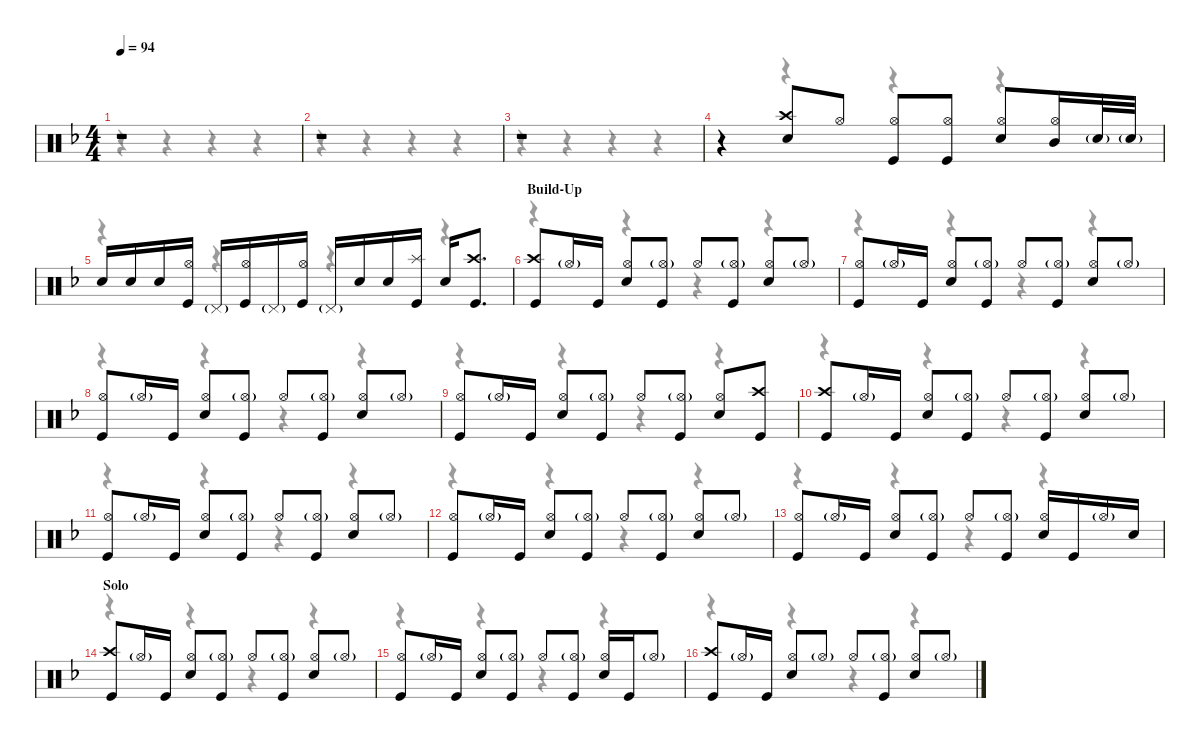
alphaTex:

\defaultSystemsLayout 4
\hideDynamics
\bracketExtendMode nobrackets
\singleTrackTrackNamePolicy hidden
\multiTrackTrackNamePolicy hidden
\otherSystemsTrackNameOrientation horizontal
\track ("M. Lopez" "drm.") {instrument percussion}
\staff {score}
\articulation defaults
\voice
\ts (4 4)
\tempo 94
\clef neutral
\ks dminor
r.1{dy f beam Up} |
r.1{beam Up} |
r.1{beam Up} |
r.4{beam Up} ("Crash high (hit)"{acc forcenatural} "Snare (hit) 2"{acc forcenatural}).8{beam Up} "Hi-Hat (open)"{acc forcenatural}.8{beam Up} ("Hi-Hat (open)"{acc forcenatural} "Kick (hit)"{acc forcenatural}).8{beam Up} ("Hi-Hat (open)"{acc forcenatural} "Kick (hit)"{acc forcenatural}).8{beam Up} ("Hi-Hat (open)"{acc forcenatural} "Snare (hit) 2"{acc forcenatural}).8{beam Up} ("Hi-Hat (open)"{acc forcenatural} "Mid Tom (hit)"{acc forcenatural}).16{beam Up} "Snare (hit) 2"{g acc forcenatural}.32{beam Up} "Snare (hit) 2"{g acc forcenatural}.32{beam Up} |
"Snare (hit) 2"{acc forcenatural}.16{beam Up} "Snare (hit) 2"{acc forcenatural}.16{beam Up} "Snare (hit) 2"{acc forcenatural}.16{beam Up} ("Hi-Hat (open)"{acc forcenatural} "Kick (hit)"{acc forcenatural}).16{beam Up} "Pedal Hi-Hat (hit)"{g acc forcenatural}.16{dy mf beam Up} ("Hi-Hat (open)"{acc forcenatural} "Kick (hit)"{acc forcenatural}).16{dy f beam Up} "Pedal Hi-Hat (hit)"{g acc forcenatural}.16{dy mf beam Up} ("Hi-Hat (open)"{acc forcenatural} "Kick (hit)"{acc forcenatural}).16{dy f beam Up} "Pedal Hi-Hat (hit)"{g acc forcenatural}.16{dy mf beam Up} "Snare (hit) 2"{acc forcenatural}.16{dy f beam Up} "Snare (hit) 2"{acc forcenatural}.16{beam Up} ("Splash (hit)"{acc forcenatural} "Kick (hit)"{acc forcenatural}).16{beam Up} "Snare (hit) 2"{acc forcenatural}.16{beam Up} ("Crash high (hit)"{acc forcenatural} "Kick (hit)"{acc forcenatural}).8{d beam Up} |
\section ("" "Build-Up")
("Crash high (hit)"{acc forcenatural} "Kick (hit)"{acc forcenatural}).8{beam Up} "Hi-Hat (open)"{g acc forcenatural}.16{dy ff beam Up} "Kick (hit)"{acc forcenatural}.16{dy f beam Up} ("Hi-Hat (open)"{acc forcenatural} "Snare (hit) 2"{acc forcenatural}).8{beam Up} ("Hi-Hat (open)"{g acc forcenatural} "Kick (hit)"{acc forcenatural}).8{beam Up} "Hi-Hat (open)"{acc forcenatural}.8{beam Up} ("Hi-Hat (open)"{g acc forcenatural} "Kick (hit)"{acc forcenatural}).8{beam Up} ("Hi-Hat (open)"{acc forcenatural} "Snare (hit) 2"{acc forcenatural}).8{beam Up} "Hi-Hat (open)"{g acc forcenatural}.8{dy ff beam Up} |
("Hi-Hat (open)"{acc forcenatural} "Kick (hit)"{acc forcenatural}).8{dy f beam Up} "Hi-Hat (open)"{g acc forcenatural}.16{dy ff beam Up} "Kick (hit)"{acc forcenatural}.16{dy f beam Up} ("Hi-Hat (open)"{acc forcenatural} "Snare (hit) 2"{acc forcenatural}).8{beam Up} ("Hi-Hat (open)"{g acc forcenatural} "Kick (hit)"{acc forcenatural}).8{beam Up} "Hi-Hat (open)"{acc forcenatural}.8{beam Up} ("Hi-Hat (open)"{g acc forcenatural} "Kick (hit)"{acc forcenatural}).8{beam Up} ("Hi-Hat (open)"{acc forcenatural} "Snare (hit) 2"{acc forcenatural}).8{beam Up} "Hi-Hat (open)"{g acc forcenatural}.8{dy ff beam Up} |
("Hi-Hat (open)"{acc forcenatural} "Kick (hit)"{acc forcenatural}).8{dy f beam Up} "Hi-Hat (open)"{g acc forcenatural}.16{dy ff beam Up} "Kick (hit)"{acc forcenatural}.16{dy f beam Up} ("Hi-Hat (open)"{acc forcenatural} "Snare (hit) 2"{acc forcenatural}).8{beam Up} ("Hi-Hat (open)"{g acc forcenatural} "Kick (hit)"{acc forcenatural}).8{beam Up} "Hi-Hat (open)"{acc forcenatural}.8{beam Up} ("Hi-Hat (open)"{g acc forcenatural} "Kick (hit)"{acc forcenatural}).8{beam Up} ("Hi-Hat (open)"{acc forcenatural} "Snare (hit) 2"{acc forcenatural}).8{beam Up} "Hi-Hat (open)"{g acc forcenatural}.8{dy ff beam Up} |
("Hi-Hat (open)"{acc forcenatural} "Kick (hit)"{acc forcenatural}).8{dy f beam Up} "Hi-Hat (open)"{g acc forcenatural}.16{dy ff beam Up} "Kick (hit)"{acc forcenatural}.16{dy f beam Up} ("Hi-Hat (open)"{acc forcenatural} "Snare (hit) 2"{acc forcenatural}).8{beam Up} ("Hi-Hat (open)"{g acc forcenatural} "Kick (hit)"{acc forcenatural}).8{beam Up} "Hi-Hat (open)"{acc forcenatural}.8{beam Up} ("Hi-Hat (open)"{g acc forcenatural} "Kick (hit)"{acc forcenatural}).8{beam Up} ("Hi-Hat (open)"{acc forcenatural} "Snare (hit) 2"{acc forcenatural}).8{beam Up} ("Crash high (hit)"{acc forcenatural} "Kick (hit)"{acc forcenatural}).8{beam Up} |
("Crash high (hit)"{acc forcenatural} "Kick (hit)"{acc forcenatural}).8{beam Up} "Hi-Hat (open)"{g acc forcenatural}.16{dy ff beam Up} "Kick (hit)"{acc forcenatural}.16{dy f beam Up} ("Hi-Hat (open)"{acc forcenatural} "Snare (hit) 2"{acc forcenatural}).8{beam Up} ("Hi-Hat (open)"{g acc forcenatural} "Kick (hit)"{acc forcenatural}).8{beam Up} "Hi-Hat (open)"{acc forcenatural}.8{beam Up} ("Hi-Hat (open)"{g acc forcenatural} "Kick (hit)"{acc forcenatural}).8{beam Up} ("Hi-Hat (open)"{acc forcenatural} "Snare (hit) 2"{acc forcenatural}).8{beam Up} "Hi-Hat (open)"{g acc forcenatural}.8{dy ff beam Up} |
("Hi-Hat (open)"{acc forcenatural} "Kick (hit)"{acc forcenatural}).8{dy f beam Up} "Hi-Hat (open)"{g acc forcenatural}.16{dy ff beam Up} "Kick (hit)"{acc forcenatural}.16{dy f beam Up} ("Hi-Hat (open)"{acc forcenatural} "Snare (hit) 2"{acc forcenatural}).8{beam Up} ("Hi-Hat (open)"{g acc forcenatural} "Kick (hit)"{acc forcenatural}).8{beam Up} "Hi-Hat (open)"{acc forcenatural}.8{beam Up} ("Hi-Hat (open)"{g acc forcenatural} "Kick (hit)"{acc forcenatural}).8{beam Up} ("Hi-Hat (open)"{acc forcenatural} "Snare (hit) 2"{acc forcenatural}).8{beam Up} "Hi-Hat (open)"{g acc forcenatural}.8{dy ff beam Up} |
("Hi-Hat (open)"{acc forcenatural} "Kick (hit)"{acc forcenatural}).8{dy f beam Up} "Hi-Hat (open)"{g acc forcenatural}.16{dy ff beam Up} "Kick (hit)"{acc forcenatural}.16{dy f beam Up} ("Hi-Hat (open)"{acc forcenatural} "Snare (hit) 2"{acc forcenatural}).8{beam Up} ("Hi-Hat (open)"{g acc forcenatural} "Kick (hit)"{acc forcenatural}).8{beam Up} "Hi-Hat (open)"{acc forcenatural}.8{beam Up} ("Hi-Hat (open)"{g acc forcenatural} "Kick (hit)"{acc forcenatural}).8{beam Up} ("Hi-Hat (open)"{acc forcenatural} "Snare (hit) 2"{acc forcenatural}).8{beam Up} "Hi-Hat (open)"{g acc forcenatural}.8{dy ff beam Up} |
("Hi-Hat (open)"{acc forcenatural} "Kick (hit)"{acc forcenatural}).8{dy f beam Up} "Hi-Hat (open)"{g acc forcenatural}.16{dy ff beam Up} "Kick (hit)"{acc forcenatural}.16{dy f beam Up} ("Hi-Hat (open)"{acc forcenatural} "Snare (hit) 2"{acc forcenatural}).8{beam Up} ("Hi-Hat (open)"{g acc forcenatural} "Kick (hit)"{acc forcenatural}).8{beam Up} "Hi-Hat (open)"{acc forcenatural}.8{beam Up} ("Hi-Hat (open)"{g acc forcenatural} "Kick (hit)"{acc forcenatural}).8{beam Up} ("Hi-Hat (open)"{acc forcenatural} "Snare (hit) 2"{acc forcenatural}).16{beam Up} "Kick (hit)"{acc forcenatural}.16{dy fff beam Up} "Hi-Hat (open)"{g acc forcenatural}.16{dy ff beam Up} "Snare (hit) 2"{acc forcenatural}.16{dy f beam Up} |
\section ("" "Solo")
("Crash high (hit)"{acc forcenatural} "Kick (hit)"{acc forcenatural}).8{beam Up} "Hi-Hat (open)"{g acc forcenatural}.16{dy ff beam Up} "Kick (hit)"{acc forcenatural}.16{dy f beam Up} ("Hi-Hat (open)"{acc forcenatural} "Snare (hit) 2"{acc forcenatural}).8{beam Up} ("Hi-Hat (open)"{g acc forcenatural} "Kick (hit)"{acc forcenatural}).8{beam Up} "Hi-Hat (open)"{acc forcenatural}.8{beam Up} ("Hi-Hat (open)"{g acc forcenatural} "Kick (hit)"{acc forcenatural}).8{beam Up} ("Hi-Hat (open)"{acc forcenatural} "Snare (hit) 2"{acc forcenatural}).8{beam Up} "Hi-Hat (open)"{g acc forcenatural}.8{dy ff beam Up} |
("Hi-Hat (open)"{acc forcenatural} "Kick (hit)"{acc forcenatural}).8{dy f beam Up} "Hi-Hat (open)"{g acc forcenatural}.16{dy ff beam Up} "Kick (hit)"{acc forcenatural}.16{dy f beam Up} ("Hi-Hat (open)"{acc forcenatural} "Snare (hit) 2"{acc forcenatural}).8{beam Up} ("Hi-Hat (open)"{g acc forcenatural} "Kick (hit)"{acc forcenatural}).8{beam Up} "Hi-Hat (open)"{acc forcenatural}.8{beam Up} ("Hi-Hat (open)"{g acc forcenatural} "Kick (hit)"{acc forcenatural}).8{beam Up} ("Hi-Hat (open)"{acc forcenatural} "Snare (hit) 2"{acc forcenatural}).16{beam Up} "Kick (hit)"{acc forcenatural}.16{dy fff beam Up} "Hi-Hat (open)"{g acc forcenatural}.8{dy ff beam Up} |
("Crash high (hit)"{acc forcenatural} "Kick (hit)"{acc forcenatural}).8{dy f beam Up} "Hi-Hat (open)"{g acc forcenatural}.16{dy ff beam Up} "Kick (hit)"{acc forcenatural}.16{dy f beam Up} ("Hi-Hat (open)"{acc forcenatural} "Snare (hit) 2"{acc forcenatural}).8{beam Up} "Hi-Hat (open)"{g acc forcenatural}.8{dy ff beam Up} "Hi-Hat (open)"{acc forcenatural}.8{dy f beam Up} ("Hi-Hat (open)"{g acc forcenatural} "Kick (hit)"{acc forcenatural}).8{beam Up} ("Hi-Hat (open)"{acc forcenatural} "Snare (hit) 2"{acc forcenatural}).8{beam Up} "Hi-Hat (open)"{g acc forcenatural}.8{dy ff beam Up}
\voice
\clef neutral
\ottava regular
\simile none
\ks dminor
r.4{dy mf beam Down} r.4{beam Down} r.4{beam Down} r.4{beam Down} |
r.4{beam Down} r.4{beam Down} r.4{beam Down} r.4{beam Down} |
r.4{beam Down} r.4{beam Down} r.4{beam Down} r.4{beam Down} |
r.4{beam Down} r.4{beam Down} r.4{beam Down} r.4{beam Down} |
r.4{beam Down} r.4{beam Down} r.4{beam Down} r.4{beam Down} |
r.4{beam Down} r.4{beam Down} r.4{beam Down} r.4{beam Down} |
r.4{beam Down} r.4{beam Down} r.4{beam Down} r.4{beam Down} |
r.4{beam Down} r.4{beam Down} r.4{beam Down} r.4{beam Down} |
r.4{beam Down} r.4{beam Down} r.4{beam Down} r.4{beam Down} |
r.4{beam Down} r.4{beam Down} r.4{beam Down} r.4{beam Down} |
r.4{beam Down} r.4{beam Down} r.4{beam Down} r.4{beam Down} |
r.4{beam Down} r.4{beam Down} r.4{beam Down} r.4{beam Down} |
r.4{beam Down} r.4{beam Down} r.4{beam Down} r.4{beam Down} |
r.4{beam Down} r.4{beam Down} r.4{beam Down} r.4{beam Down} |
r.4{beam Down} r.4{beam Down} r.4{beam Down} r.4{beam Down} |
r.4{beam Down} r.4{beam Down} r.4{beam Down} r.4{beam Down}
